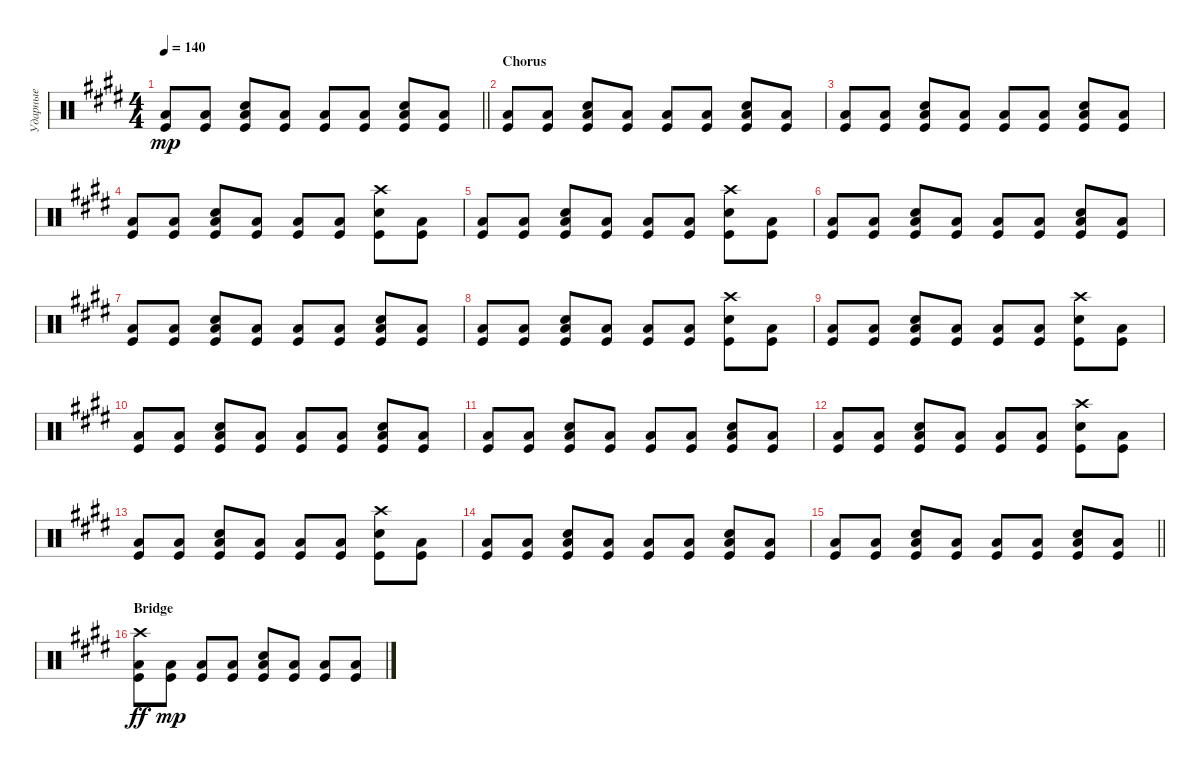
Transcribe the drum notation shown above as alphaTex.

\track ("Ударные" "Ударные") {instrument percussion}
\staff {score}
\articulation defaults
\ts (4 4)
\tempo 140
\clef neutral
\barLineRight lightlight
\ks c#minor
("Kick (hit)" "Low Floor Tom (hit)").8{dy mp} ("Kick (hit)" "Low Floor Tom (hit)").8 ("Kick (hit)" "Low Floor Tom (hit)" "Snare (hit) 2").8 ("Kick (hit)" "Low Floor Tom (hit)").8 ("Kick (hit)" "Low Floor Tom (hit)").8 ("Kick (hit)" "Low Floor Tom (hit)").8 ("Kick (hit)" "Low Floor Tom (hit)" "Snare (hit) 2").8 ("Kick (hit)" "Low Floor Tom (hit)").8 |
\section ("" "Chorus")
("Kick (hit)" "Low Floor Tom (hit)").8 ("Kick (hit)" "Low Floor Tom (hit)").8 ("Kick (hit)" "Low Floor Tom (hit)" "Snare (hit) 2").8 ("Kick (hit)" "Low Floor Tom (hit)").8 ("Kick (hit)" "Low Floor Tom (hit)").8 ("Kick (hit)" "Low Floor Tom (hit)").8 ("Kick (hit)" "Low Floor Tom (hit)" "Snare (hit) 2").8 ("Kick (hit)" "Low Floor Tom (hit)").8 |
("Kick (hit)" "Low Floor Tom (hit)").8 ("Kick (hit)" "Low Floor Tom (hit)").8 ("Kick (hit)" "Low Floor Tom (hit)" "Snare (hit) 2").8 ("Kick (hit)" "Low Floor Tom (hit)").8 ("Kick (hit)" "Low Floor Tom (hit)").8 ("Kick (hit)" "Low Floor Tom (hit)").8 ("Kick (hit)" "Low Floor Tom (hit)" "Snare (hit) 2").8 ("Kick (hit)" "Low Floor Tom (hit)").8 |
("Kick (hit)" "Low Floor Tom (hit)").8 ("Kick (hit)" "Low Floor Tom (hit)").8 ("Kick (hit)" "Low Floor Tom (hit)" "Snare (hit) 2").8 ("Kick (hit)" "Low Floor Tom (hit)").8 ("Kick (hit)" "Low Floor Tom (hit)").8 ("Kick (hit)" "Low Floor Tom (hit)").8 ("Kick (hit)" "Snare (hit) 2" "Crash high (hit)").8 ("Kick (hit)" "Low Floor Tom (hit)").8 |
("Kick (hit)" "Low Floor Tom (hit)").8 ("Kick (hit)" "Low Floor Tom (hit)").8 ("Kick (hit)" "Low Floor Tom (hit)" "Snare (hit) 2").8 ("Kick (hit)" "Low Floor Tom (hit)").8 ("Kick (hit)" "Low Floor Tom (hit)").8 ("Kick (hit)" "Low Floor Tom (hit)").8 ("Kick (hit)" "Snare (hit) 2" "Crash high (hit)").8 ("Kick (hit)" "Low Floor Tom (hit)").8 |
("Kick (hit)" "Low Floor Tom (hit)").8 ("Kick (hit)" "Low Floor Tom (hit)").8 ("Kick (hit)" "Low Floor Tom (hit)" "Snare (hit) 2").8 ("Kick (hit)" "Low Floor Tom (hit)").8 ("Kick (hit)" "Low Floor Tom (hit)").8 ("Kick (hit)" "Low Floor Tom (hit)").8 ("Kick (hit)" "Low Floor Tom (hit)" "Snare (hit) 2").8 ("Kick (hit)" "Low Floor Tom (hit)").8 |
("Kick (hit)" "Low Floor Tom (hit)").8 ("Kick (hit)" "Low Floor Tom (hit)").8 ("Kick (hit)" "Low Floor Tom (hit)" "Snare (hit) 2").8 ("Kick (hit)" "Low Floor Tom (hit)").8 ("Kick (hit)" "Low Floor Tom (hit)").8 ("Kick (hit)" "Low Floor Tom (hit)").8 ("Kick (hit)" "Low Floor Tom (hit)" "Snare (hit) 2").8 ("Kick (hit)" "Low Floor Tom (hit)").8 |
("Kick (hit)" "Low Floor Tom (hit)").8 ("Kick (hit)" "Low Floor Tom (hit)").8 ("Kick (hit)" "Low Floor Tom (hit)" "Snare (hit) 2").8 ("Kick (hit)" "Low Floor Tom (hit)").8 ("Kick (hit)" "Low Floor Tom (hit)").8 ("Kick (hit)" "Low Floor Tom (hit)").8 ("Kick (hit)" "Snare (hit) 2" "Crash high (hit)").8 ("Kick (hit)" "Low Floor Tom (hit)").8 |
("Kick (hit)" "Low Floor Tom (hit)").8 ("Kick (hit)" "Low Floor Tom (hit)").8 ("Kick (hit)" "Low Floor Tom (hit)" "Snare (hit) 2").8 ("Kick (hit)" "Low Floor Tom (hit)").8 ("Kick (hit)" "Low Floor Tom (hit)").8 ("Kick (hit)" "Low Floor Tom (hit)").8 ("Kick (hit)" "Snare (hit) 2" "Crash high (hit)").8 ("Kick (hit)" "Low Floor Tom (hit)").8 |
("Kick (hit)" "Low Floor Tom (hit)").8 ("Kick (hit)" "Low Floor Tom (hit)").8 ("Kick (hit)" "Low Floor Tom (hit)" "Snare (hit) 2").8 ("Kick (hit)" "Low Floor Tom (hit)").8 ("Kick (hit)" "Low Floor Tom (hit)").8 ("Kick (hit)" "Low Floor Tom (hit)").8 ("Kick (hit)" "Low Floor Tom (hit)" "Snare (hit) 2").8 ("Kick (hit)" "Low Floor Tom (hit)").8 |
("Kick (hit)" "Low Floor Tom (hit)").8 ("Kick (hit)" "Low Floor Tom (hit)").8 ("Kick (hit)" "Low Floor Tom (hit)" "Snare (hit) 2").8 ("Kick (hit)" "Low Floor Tom (hit)").8 ("Kick (hit)" "Low Floor Tom (hit)").8 ("Kick (hit)" "Low Floor Tom (hit)").8 ("Kick (hit)" "Low Floor Tom (hit)" "Snare (hit) 2").8 ("Kick (hit)" "Low Floor Tom (hit)").8 |
("Kick (hit)" "Low Floor Tom (hit)").8 ("Kick (hit)" "Low Floor Tom (hit)").8 ("Kick (hit)" "Low Floor Tom (hit)" "Snare (hit) 2").8 ("Kick (hit)" "Low Floor Tom (hit)").8 ("Kick (hit)" "Low Floor Tom (hit)").8 ("Kick (hit)" "Low Floor Tom (hit)").8 ("Kick (hit)" "Snare (hit) 2" "Crash high (hit)").8 ("Kick (hit)" "Low Floor Tom (hit)").8 |
("Kick (hit)" "Low Floor Tom (hit)").8 ("Kick (hit)" "Low Floor Tom (hit)").8 ("Kick (hit)" "Low Floor Tom (hit)" "Snare (hit) 2").8 ("Kick (hit)" "Low Floor Tom (hit)").8 ("Kick (hit)" "Low Floor Tom (hit)").8 ("Kick (hit)" "Low Floor Tom (hit)").8 ("Kick (hit)" "Snare (hit) 2" "Crash high (hit)").8 ("Kick (hit)" "Low Floor Tom (hit)").8 |
("Kick (hit)" "Low Floor Tom (hit)").8 ("Kick (hit)" "Low Floor Tom (hit)").8 ("Kick (hit)" "Low Floor Tom (hit)" "Snare (hit) 2").8 ("Kick (hit)" "Low Floor Tom (hit)").8 ("Kick (hit)" "Low Floor Tom (hit)").8 ("Kick (hit)" "Low Floor Tom (hit)").8 ("Kick (hit)" "Low Floor Tom (hit)" "Snare (hit) 2").8 ("Kick (hit)" "Low Floor Tom (hit)").8 |
\barLineRight lightlight
("Kick (hit)" "Low Floor Tom (hit)").8 ("Kick (hit)" "Low Floor Tom (hit)").8 ("Kick (hit)" "Low Floor Tom (hit)" "Snare (hit) 2").8 ("Kick (hit)" "Low Floor Tom (hit)").8 ("Kick (hit)" "Low Floor Tom (hit)").8 ("Kick (hit)" "Low Floor Tom (hit)").8 ("Kick (hit)" "Low Floor Tom (hit)" "Snare (hit) 2").8 ("Kick (hit)" "Low Floor Tom (hit)").8 |
\section ("" "Bridge")
("Kick (hit)" "Low Floor Tom (hit)" "Crash high (hit)").8{dy ff} ("Kick (hit)" "Low Floor Tom (hit)").8{dy mp} ("Kick (hit)" "Low Floor Tom (hit)").8 ("Kick (hit)" "Low Floor Tom (hit)").8 ("Kick (hit)" "Snare (hit) 2" "Low Floor Tom (hit)").8 ("Kick (hit)" "Low Floor Tom (hit)").8 ("Kick (hit)" "Low Floor Tom (hit)").8 ("Kick (hit)" "Low Floor Tom (hit)").8
